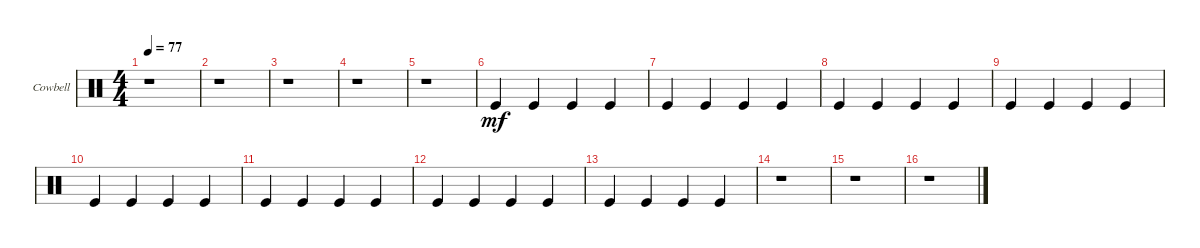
\defaultSystemsLayout 4
\bracketExtendMode groupsimilarinstruments
\firstSystemTrackNameOrientation horizontal
\otherSystemsTrackNameOrientation horizontal
\track ("Cowbell" "Cowbell") {instrument percussion}
\staff {score}
\articulation defaults
\ts (4 4)
\tempo 77
\clef neutral
\scale
0.333333
\ks c
r.1{dy mf} |
\scale
0.333333 r.1 |
\scale
0.333333 r.1 |
\scale
0.333333 r.1 |
\scale
0.333333 r.1 |
\scale
0.333333 "Kick (hit)".4 "Kick (hit)".4 "Kick (hit)".4 "Kick (hit)".4 |
\scale
0.333333 "Kick (hit)".4 "Kick (hit)".4 "Kick (hit)".4 "Kick (hit)".4 |
"Kick (hit)".4 "Kick (hit)".4 "Kick (hit)".4 "Kick (hit)".4 |
"Kick (hit)".4 "Kick (hit)".4 "Kick (hit)".4 "Kick (hit)".4 |
\scale
0.333333 "Kick (hit)".4 "Kick (hit)".4 "Kick (hit)".4 "Kick (hit)".4 |
\scale
0.333333 "Kick (hit)".4 "Kick (hit)".4 "Kick (hit)".4 "Kick (hit)".4 |
\scale
0.333333 "Kick (hit)".4 "Kick (hit)".4 "Kick (hit)".4 "Kick (hit)".4 |
\scale
0.333333 "Kick (hit)".4 "Kick (hit)".4 "Kick (hit)".4 "Kick (hit)".4 |
\scale
0.333333 r.1 |
\scale
0.333333 r.1 |
\scale
0.333333 r.1
